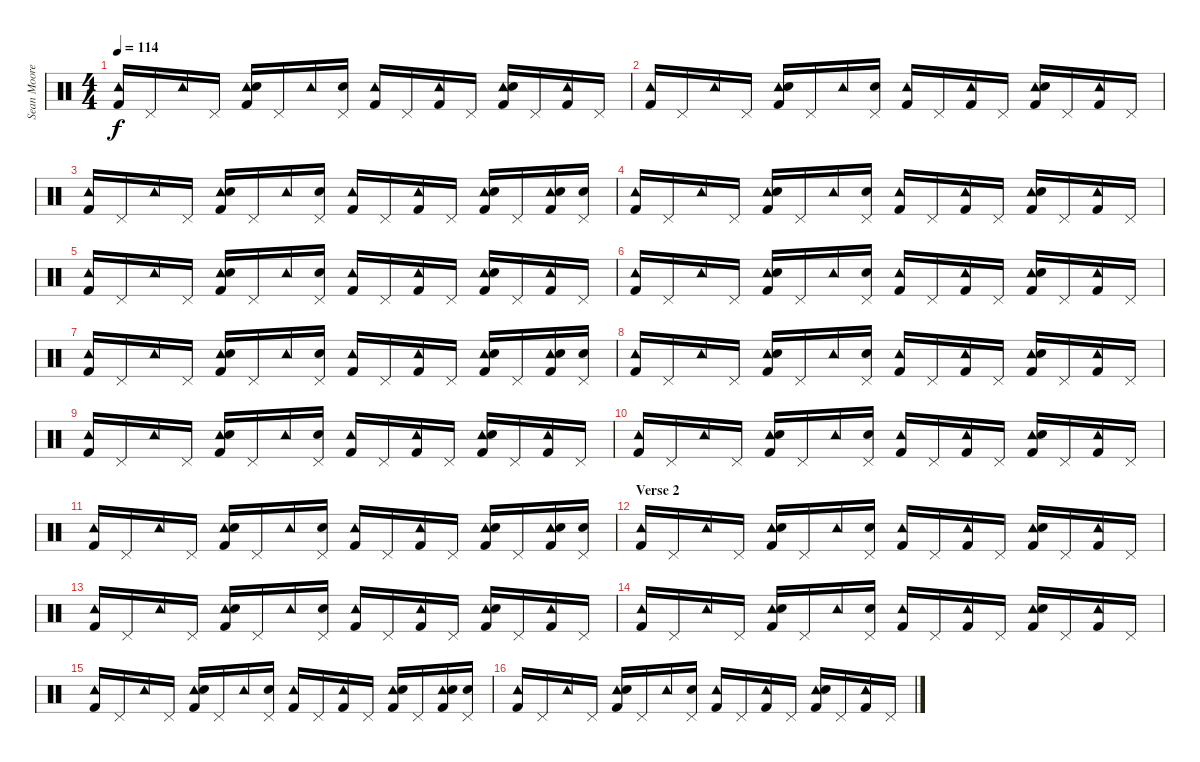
\track ("Sean Moore" "Sean Moore") {instrument percussion}
\staff {score}
\articulation defaults
\ts (4 4)
\tempo 114
\clef neutral
\ks c
("Tambourine (hit)" "Kick (hit) 2").16{dy f} "Pedal Hi-Hat (hit)".16 "Tambourine (hit)".16 "Pedal Hi-Hat (hit)".16 ("Tambourine (hit)" "Snare (hit) 2" "Kick (hit) 2").16 "Pedal Hi-Hat (hit)".16 "Tambourine (hit)".16 ("Snare (hit) 2" "Pedal Hi-Hat (hit)").16 ("Tambourine (hit)" "Kick (hit) 2").16 "Pedal Hi-Hat (hit)".16 ("Tambourine (hit)" "Kick (hit) 2").16 "Pedal Hi-Hat (hit)".16 ("Tambourine (hit)" "Snare (hit) 2" "Kick (hit) 2").16 "Pedal Hi-Hat (hit)".16 ("Tambourine (hit)" "Kick (hit) 2").16 "Pedal Hi-Hat (hit)".16 |
("Tambourine (hit)" "Kick (hit) 2").16 "Pedal Hi-Hat (hit)".16 "Tambourine (hit)".16 "Pedal Hi-Hat (hit)".16 ("Tambourine (hit)" "Snare (hit) 2" "Kick (hit) 2").16 "Pedal Hi-Hat (hit)".16 "Tambourine (hit)".16 ("Snare (hit) 2" "Pedal Hi-Hat (hit)").16 ("Tambourine (hit)" "Kick (hit) 2").16 "Pedal Hi-Hat (hit)".16 ("Tambourine (hit)" "Kick (hit) 2").16 "Pedal Hi-Hat (hit)".16 ("Tambourine (hit)" "Snare (hit) 2" "Kick (hit) 2").16 "Pedal Hi-Hat (hit)".16 ("Tambourine (hit)" "Kick (hit) 2").16 "Pedal Hi-Hat (hit)".16 |
("Tambourine (hit)" "Kick (hit) 2").16 "Pedal Hi-Hat (hit)".16 "Tambourine (hit)".16 "Pedal Hi-Hat (hit)".16 ("Tambourine (hit)" "Snare (hit) 2" "Kick (hit) 2").16 "Pedal Hi-Hat (hit)".16 "Tambourine (hit)".16 ("Snare (hit) 2" "Pedal Hi-Hat (hit)").16 ("Tambourine (hit)" "Kick (hit) 2").16 "Pedal Hi-Hat (hit)".16 ("Tambourine (hit)" "Kick (hit) 2").16 "Pedal Hi-Hat (hit)".16 ("Tambourine (hit)" "Snare (hit) 2" "Kick (hit) 2").16 "Pedal Hi-Hat (hit)".16 ("Tambourine (hit)" "Snare (hit) 2" "Kick (hit) 2").16 ("Snare (hit) 2" "Pedal Hi-Hat (hit)").16 |
("Tambourine (hit)" "Kick (hit) 2").16 "Pedal Hi-Hat (hit)".16 "Tambourine (hit)".16 "Pedal Hi-Hat (hit)".16 ("Tambourine (hit)" "Snare (hit) 2" "Kick (hit) 2").16 "Pedal Hi-Hat (hit)".16 "Tambourine (hit)".16 ("Snare (hit) 2" "Pedal Hi-Hat (hit)").16 ("Tambourine (hit)" "Kick (hit) 2").16 "Pedal Hi-Hat (hit)".16 ("Tambourine (hit)" "Kick (hit) 2").16 "Pedal Hi-Hat (hit)".16 ("Tambourine (hit)" "Snare (hit) 2" "Kick (hit) 2").16 "Pedal Hi-Hat (hit)".16 ("Tambourine (hit)" "Kick (hit) 2").16 "Pedal Hi-Hat (hit)".16 |
("Tambourine (hit)" "Kick (hit) 2").16 "Pedal Hi-Hat (hit)".16 "Tambourine (hit)".16 "Pedal Hi-Hat (hit)".16 ("Tambourine (hit)" "Snare (hit) 2" "Kick (hit) 2").16 "Pedal Hi-Hat (hit)".16 "Tambourine (hit)".16 ("Snare (hit) 2" "Pedal Hi-Hat (hit)").16 ("Tambourine (hit)" "Kick (hit) 2").16 "Pedal Hi-Hat (hit)".16 ("Tambourine (hit)" "Kick (hit) 2").16 "Pedal Hi-Hat (hit)".16 ("Tambourine (hit)" "Snare (hit) 2" "Kick (hit) 2").16 "Pedal Hi-Hat (hit)".16 ("Tambourine (hit)" "Kick (hit) 2").16 "Pedal Hi-Hat (hit)".16 |
("Tambourine (hit)" "Kick (hit) 2").16 "Pedal Hi-Hat (hit)".16 "Tambourine (hit)".16 "Pedal Hi-Hat (hit)".16 ("Tambourine (hit)" "Snare (hit) 2" "Kick (hit) 2").16 "Pedal Hi-Hat (hit)".16 "Tambourine (hit)".16 ("Snare (hit) 2" "Pedal Hi-Hat (hit)").16 ("Tambourine (hit)" "Kick (hit) 2").16 "Pedal Hi-Hat (hit)".16 ("Tambourine (hit)" "Kick (hit) 2").16 "Pedal Hi-Hat (hit)".16 ("Tambourine (hit)" "Snare (hit) 2" "Kick (hit) 2").16 "Pedal Hi-Hat (hit)".16 ("Tambourine (hit)" "Kick (hit) 2").16 "Pedal Hi-Hat (hit)".16 |
("Tambourine (hit)" "Kick (hit) 2").16 "Pedal Hi-Hat (hit)".16 "Tambourine (hit)".16 "Pedal Hi-Hat (hit)".16 ("Tambourine (hit)" "Snare (hit) 2" "Kick (hit) 2").16 "Pedal Hi-Hat (hit)".16 "Tambourine (hit)".16 ("Snare (hit) 2" "Pedal Hi-Hat (hit)").16 ("Tambourine (hit)" "Kick (hit) 2").16 "Pedal Hi-Hat (hit)".16 ("Tambourine (hit)" "Kick (hit) 2").16 "Pedal Hi-Hat (hit)".16 ("Tambourine (hit)" "Snare (hit) 2" "Kick (hit) 2").16 "Pedal Hi-Hat (hit)".16 ("Tambourine (hit)" "Snare (hit) 2" "Kick (hit) 2").16 ("Snare (hit) 2" "Pedal Hi-Hat (hit)").16 |
("Tambourine (hit)" "Kick (hit) 2").16 "Pedal Hi-Hat (hit)".16 "Tambourine (hit)".16 "Pedal Hi-Hat (hit)".16 ("Tambourine (hit)" "Snare (hit) 2" "Kick (hit) 2").16 "Pedal Hi-Hat (hit)".16 "Tambourine (hit)".16 ("Snare (hit) 2" "Pedal Hi-Hat (hit)").16 ("Tambourine (hit)" "Kick (hit) 2").16 "Pedal Hi-Hat (hit)".16 ("Tambourine (hit)" "Kick (hit) 2").16 "Pedal Hi-Hat (hit)".16 ("Tambourine (hit)" "Snare (hit) 2" "Kick (hit) 2").16 "Pedal Hi-Hat (hit)".16 ("Tambourine (hit)" "Kick (hit) 2").16 "Pedal Hi-Hat (hit)".16 |
("Tambourine (hit)" "Kick (hit) 2").16 "Pedal Hi-Hat (hit)".16 "Tambourine (hit)".16 "Pedal Hi-Hat (hit)".16 ("Tambourine (hit)" "Snare (hit) 2" "Kick (hit) 2").16 "Pedal Hi-Hat (hit)".16 "Tambourine (hit)".16 ("Snare (hit) 2" "Pedal Hi-Hat (hit)").16 ("Tambourine (hit)" "Kick (hit) 2").16 "Pedal Hi-Hat (hit)".16 ("Tambourine (hit)" "Kick (hit) 2").16 "Pedal Hi-Hat (hit)".16 ("Tambourine (hit)" "Snare (hit) 2" "Kick (hit) 2").16 "Pedal Hi-Hat (hit)".16 ("Tambourine (hit)" "Kick (hit) 2").16 "Pedal Hi-Hat (hit)".16 |
("Tambourine (hit)" "Kick (hit) 2").16 "Pedal Hi-Hat (hit)".16 "Tambourine (hit)".16 "Pedal Hi-Hat (hit)".16 ("Tambourine (hit)" "Snare (hit) 2" "Kick (hit) 2").16 "Pedal Hi-Hat (hit)".16 "Tambourine (hit)".16 ("Snare (hit) 2" "Pedal Hi-Hat (hit)").16 ("Tambourine (hit)" "Kick (hit) 2").16 "Pedal Hi-Hat (hit)".16 ("Tambourine (hit)" "Kick (hit) 2").16 "Pedal Hi-Hat (hit)".16 ("Tambourine (hit)" "Snare (hit) 2" "Kick (hit) 2").16 "Pedal Hi-Hat (hit)".16 ("Tambourine (hit)" "Kick (hit) 2").16 "Pedal Hi-Hat (hit)".16 |
("Tambourine (hit)" "Kick (hit) 2").16 "Pedal Hi-Hat (hit)".16 "Tambourine (hit)".16 "Pedal Hi-Hat (hit)".16 ("Tambourine (hit)" "Snare (hit) 2" "Kick (hit) 2").16 "Pedal Hi-Hat (hit)".16 "Tambourine (hit)".16 ("Snare (hit) 2" "Pedal Hi-Hat (hit)").16 ("Tambourine (hit)" "Kick (hit) 2").16 "Pedal Hi-Hat (hit)".16 ("Tambourine (hit)" "Kick (hit) 2").16 "Pedal Hi-Hat (hit)".16 ("Tambourine (hit)" "Snare (hit) 2" "Kick (hit) 2").16 "Pedal Hi-Hat (hit)".16 ("Tambourine (hit)" "Snare (hit) 2" "Kick (hit) 2").16 ("Snare (hit) 2" "Pedal Hi-Hat (hit)").16 |
\section ("" "Verse 2")
("Tambourine (hit)" "Kick (hit) 2").16 "Pedal Hi-Hat (hit)".16 "Tambourine (hit)".16 "Pedal Hi-Hat (hit)".16 ("Tambourine (hit)" "Snare (hit) 2" "Kick (hit) 2").16 "Pedal Hi-Hat (hit)".16 "Tambourine (hit)".16 ("Snare (hit) 2" "Pedal Hi-Hat (hit)").16 ("Tambourine (hit)" "Kick (hit) 2").16 "Pedal Hi-Hat (hit)".16 ("Tambourine (hit)" "Kick (hit) 2").16 "Pedal Hi-Hat (hit)".16 ("Tambourine (hit)" "Snare (hit) 2" "Kick (hit) 2").16 "Pedal Hi-Hat (hit)".16 ("Tambourine (hit)" "Kick (hit) 2").16 "Pedal Hi-Hat (hit)".16 |
("Tambourine (hit)" "Kick (hit) 2").16 "Pedal Hi-Hat (hit)".16 "Tambourine (hit)".16 "Pedal Hi-Hat (hit)".16 ("Tambourine (hit)" "Snare (hit) 2" "Kick (hit) 2").16 "Pedal Hi-Hat (hit)".16 "Tambourine (hit)".16 ("Snare (hit) 2" "Pedal Hi-Hat (hit)").16 ("Tambourine (hit)" "Kick (hit) 2").16 "Pedal Hi-Hat (hit)".16 ("Tambourine (hit)" "Kick (hit) 2").16 "Pedal Hi-Hat (hit)".16 ("Tambourine (hit)" "Snare (hit) 2" "Kick (hit) 2").16 "Pedal Hi-Hat (hit)".16 ("Tambourine (hit)" "Kick (hit) 2").16 "Pedal Hi-Hat (hit)".16 |
("Tambourine (hit)" "Kick (hit) 2").16 "Pedal Hi-Hat (hit)".16 "Tambourine (hit)".16 "Pedal Hi-Hat (hit)".16 ("Tambourine (hit)" "Snare (hit) 2" "Kick (hit) 2").16 "Pedal Hi-Hat (hit)".16 "Tambourine (hit)".16 ("Snare (hit) 2" "Pedal Hi-Hat (hit)").16 ("Tambourine (hit)" "Kick (hit) 2").16 "Pedal Hi-Hat (hit)".16 ("Tambourine (hit)" "Kick (hit) 2").16 "Pedal Hi-Hat (hit)".16 ("Tambourine (hit)" "Snare (hit) 2" "Kick (hit) 2").16 "Pedal Hi-Hat (hit)".16 ("Tambourine (hit)" "Kick (hit) 2").16 "Pedal Hi-Hat (hit)".16 |
("Tambourine (hit)" "Kick (hit) 2").16 "Pedal Hi-Hat (hit)".16 "Tambourine (hit)".16 "Pedal Hi-Hat (hit)".16 ("Tambourine (hit)" "Snare (hit) 2" "Kick (hit) 2").16 "Pedal Hi-Hat (hit)".16 "Tambourine (hit)".16 ("Snare (hit) 2" "Pedal Hi-Hat (hit)").16 ("Tambourine (hit)" "Kick (hit) 2").16 "Pedal Hi-Hat (hit)".16 ("Tambourine (hit)" "Kick (hit) 2").16 "Pedal Hi-Hat (hit)".16 ("Tambourine (hit)" "Snare (hit) 2" "Kick (hit) 2").16 "Pedal Hi-Hat (hit)".16 ("Tambourine (hit)" "Snare (hit) 2" "Kick (hit) 2").16 ("Snare (hit) 2" "Pedal Hi-Hat (hit)").16 |
("Tambourine (hit)" "Kick (hit) 2").16 "Pedal Hi-Hat (hit)".16 "Tambourine (hit)".16 "Pedal Hi-Hat (hit)".16 ("Tambourine (hit)" "Snare (hit) 2" "Kick (hit) 2").16 "Pedal Hi-Hat (hit)".16 "Tambourine (hit)".16 ("Snare (hit) 2" "Pedal Hi-Hat (hit)").16 ("Tambourine (hit)" "Kick (hit) 2").16 "Pedal Hi-Hat (hit)".16 ("Tambourine (hit)" "Kick (hit) 2").16 "Pedal Hi-Hat (hit)".16 ("Tambourine (hit)" "Snare (hit) 2" "Kick (hit) 2").16 "Pedal Hi-Hat (hit)".16 ("Tambourine (hit)" "Kick (hit) 2").16 "Pedal Hi-Hat (hit)".16
